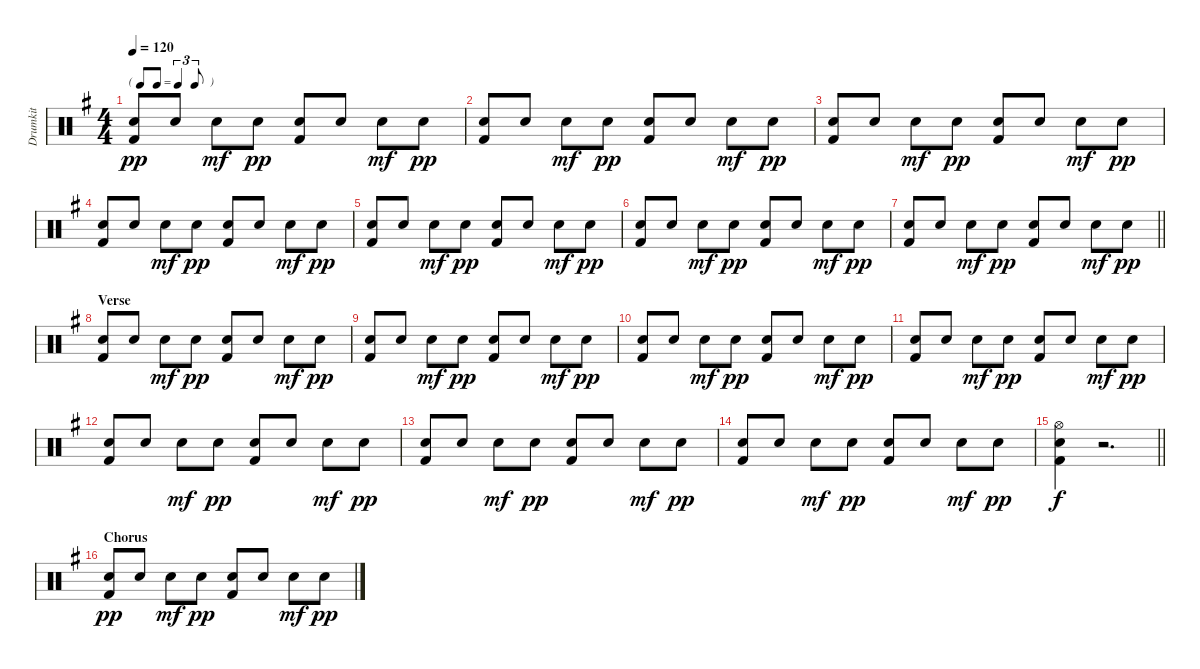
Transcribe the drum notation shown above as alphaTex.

\track ("Drumkit" "Drumkit") {instrument percussion}
\staff {score}
\articulation defaults
\ts (4 4)
\tf triplet8th
\tempo 120
\clef neutral
\ks g
("Snare (hit) 2" "Kick (hit) 2").8{dy pp} "Snare (hit) 2".8 "Snare (hit) 2".8{dy mf} "Snare (hit) 2".8{dy pp} ("Snare (hit) 2" "Kick (hit) 2").8 "Snare (hit) 2".8 "Snare (hit) 2".8{dy mf} "Snare (hit) 2".8{dy pp} |
("Snare (hit) 2" "Kick (hit) 2").8 "Snare (hit) 2".8 "Snare (hit) 2".8{dy mf} "Snare (hit) 2".8{dy pp} ("Snare (hit) 2" "Kick (hit) 2").8 "Snare (hit) 2".8 "Snare (hit) 2".8{dy mf} "Snare (hit) 2".8{dy pp} |
("Snare (hit) 2" "Kick (hit) 2").8 "Snare (hit) 2".8 "Snare (hit) 2".8{dy mf} "Snare (hit) 2".8{dy pp} ("Snare (hit) 2" "Kick (hit) 2").8 "Snare (hit) 2".8 "Snare (hit) 2".8{dy mf} "Snare (hit) 2".8{dy pp} |
("Snare (hit) 2" "Kick (hit) 2").8 "Snare (hit) 2".8 "Snare (hit) 2".8{dy mf} "Snare (hit) 2".8{dy pp} ("Snare (hit) 2" "Kick (hit) 2").8 "Snare (hit) 2".8 "Snare (hit) 2".8{dy mf} "Snare (hit) 2".8{dy pp} |
("Snare (hit) 2" "Kick (hit) 2").8 "Snare (hit) 2".8 "Snare (hit) 2".8{dy mf} "Snare (hit) 2".8{dy pp} ("Snare (hit) 2" "Kick (hit) 2").8 "Snare (hit) 2".8 "Snare (hit) 2".8{dy mf} "Snare (hit) 2".8{dy pp} |
("Snare (hit) 2" "Kick (hit) 2").8 "Snare (hit) 2".8 "Snare (hit) 2".8{dy mf} "Snare (hit) 2".8{dy pp} ("Snare (hit) 2" "Kick (hit) 2").8 "Snare (hit) 2".8 "Snare (hit) 2".8{dy mf} "Snare (hit) 2".8{dy pp} |
\barLineRight lightlight
("Snare (hit) 2" "Kick (hit) 2").8 "Snare (hit) 2".8 "Snare (hit) 2".8{dy mf} "Snare (hit) 2".8{dy pp} ("Snare (hit) 2" "Kick (hit) 2").8 "Snare (hit) 2".8 "Snare (hit) 2".8{dy mf} "Snare (hit) 2".8{dy pp} |
\section ("" "Verse")
("Snare (hit) 2" "Kick (hit) 2").8 "Snare (hit) 2".8 "Snare (hit) 2".8{dy mf} "Snare (hit) 2".8{dy pp} ("Snare (hit) 2" "Kick (hit) 2").8 "Snare (hit) 2".8 "Snare (hit) 2".8{dy mf} "Snare (hit) 2".8{dy pp} |
("Snare (hit) 2" "Kick (hit) 2").8 "Snare (hit) 2".8 "Snare (hit) 2".8{dy mf} "Snare (hit) 2".8{dy pp} ("Snare (hit) 2" "Kick (hit) 2").8 "Snare (hit) 2".8 "Snare (hit) 2".8{dy mf} "Snare (hit) 2".8{dy pp} |
("Snare (hit) 2" "Kick (hit) 2").8 "Snare (hit) 2".8 "Snare (hit) 2".8{dy mf} "Snare (hit) 2".8{dy pp} ("Snare (hit) 2" "Kick (hit) 2").8 "Snare (hit) 2".8 "Snare (hit) 2".8{dy mf} "Snare (hit) 2".8{dy pp} |
("Snare (hit) 2" "Kick (hit) 2").8 "Snare (hit) 2".8 "Snare (hit) 2".8{dy mf} "Snare (hit) 2".8{dy pp} ("Snare (hit) 2" "Kick (hit) 2").8 "Snare (hit) 2".8 "Snare (hit) 2".8{dy mf} "Snare (hit) 2".8{dy pp} |
("Snare (hit) 2" "Kick (hit) 2").8 "Snare (hit) 2".8 "Snare (hit) 2".8{dy mf} "Snare (hit) 2".8{dy pp} ("Snare (hit) 2" "Kick (hit) 2").8 "Snare (hit) 2".8 "Snare (hit) 2".8{dy mf} "Snare (hit) 2".8{dy pp} |
("Snare (hit) 2" "Kick (hit) 2").8 "Snare (hit) 2".8 "Snare (hit) 2".8{dy mf} "Snare (hit) 2".8{dy pp} ("Snare (hit) 2" "Kick (hit) 2").8 "Snare (hit) 2".8 "Snare (hit) 2".8{dy mf} "Snare (hit) 2".8{dy pp} |
("Snare (hit) 2" "Kick (hit) 2").8 "Snare (hit) 2".8 "Snare (hit) 2".8{dy mf} "Snare (hit) 2".8{dy pp} ("Snare (hit) 2" "Kick (hit) 2").8 "Snare (hit) 2".8 "Snare (hit) 2".8{dy mf} "Snare (hit) 2".8{dy pp} |
\barLineRight lightlight
("Kick (hit) 2" "Snare (hit) 2" "Hi-Hat (open)").4{dy f} r.2{d} |
\section ("" "Chorus")
("Snare (hit) 2" "Kick (hit) 2").8{dy pp} "Snare (hit) 2".8 "Snare (hit) 2".8{dy mf} "Snare (hit) 2".8{dy pp} ("Snare (hit) 2" "Kick (hit) 2").8 "Snare (hit) 2".8 "Snare (hit) 2".8{dy mf} "Snare (hit) 2".8{dy pp}
